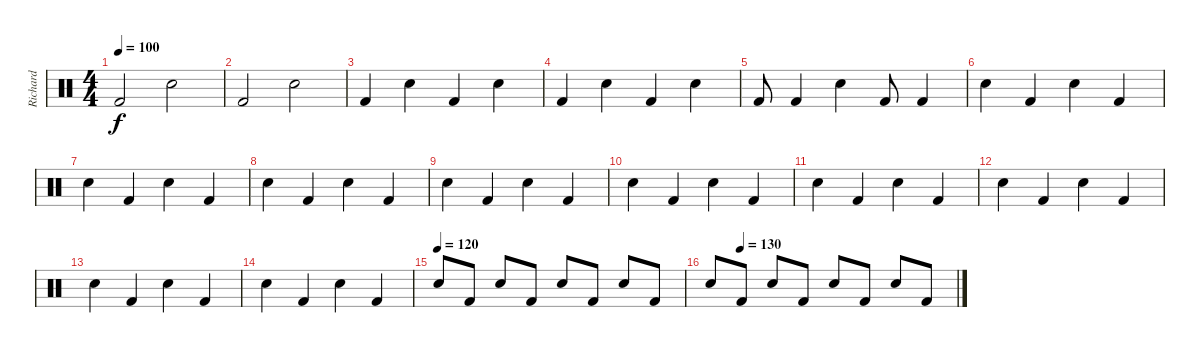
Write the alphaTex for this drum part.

\track ("Richard" "Richard") {instrument percussion}
\staff {score}
\articulation defaults
\ts (4 4)
\tempo 100
\clef neutral
\ks c "Kick (hit) 2".2{dy f} "Snare (hit) 2".2
|
"Kick (hit) 2".2 "Snare (hit) 2".2 |
"Kick (hit) 2".4 "Snare (hit) 2".4 "Kick (hit) 2".4 "Snare (hit) 2".4 |
"Kick (hit) 2".4 "Snare (hit) 2".4 "Kick (hit) 2".4 "Snare (hit) 2".4 |
"Kick (hit) 2".8 "Kick (hit) 2".4 "Snare (hit) 2".4 "Kick (hit) 2".8 "Kick (hit) 2".4 |
"Snare (hit) 2".4 "Kick (hit) 2".4 "Snare (hit) 2".4 "Kick (hit) 2".4 |
"Snare (hit) 2".4 "Kick (hit) 2".4 "Snare (hit) 2".4 "Kick (hit) 2".4 |
"Snare (hit) 2".4 "Kick (hit) 2".4 "Snare (hit) 2".4 "Kick (hit) 2".4 |
"Snare (hit) 2".4 "Kick (hit) 2".4 "Snare (hit) 2".4 "Kick (hit) 2".4 |
"Snare (hit) 2".4 "Kick (hit) 2".4 "Snare (hit) 2".4 "Kick (hit) 2".4 |
"Snare (hit) 2".4 "Kick (hit) 2".4 "Snare (hit) 2".4 "Kick (hit) 2".4 |
"Snare (hit) 2".4 "Kick (hit) 2".4 "Snare (hit) 2".4 "Kick (hit) 2".4 |
"Snare (hit) 2".4 "Kick (hit) 2".4 "Snare (hit) 2".4 "Kick (hit) 2".4 |
"Snare (hit) 2".4 "Kick (hit) 2".4 "Snare (hit) 2".4 "Kick (hit) 2".4 |
\tempo (120)
"Snare (hit) 2".8 "Kick (hit) 2".8 "Snare (hit) 2".8 "Kick (hit) 2".8 "Snare (hit) 2".8 "Kick (hit) 2".8 "Snare (hit) 2".8 "Kick (hit) 2".8 |
\tempo (130 0.125)
"Snare (hit) 2".8 "Kick (hit) 2".8 "Snare (hit) 2".8 "Kick (hit) 2".8 "Snare (hit) 2".8 "Kick (hit) 2".8 "Snare (hit) 2".8 "Kick (hit) 2".8
